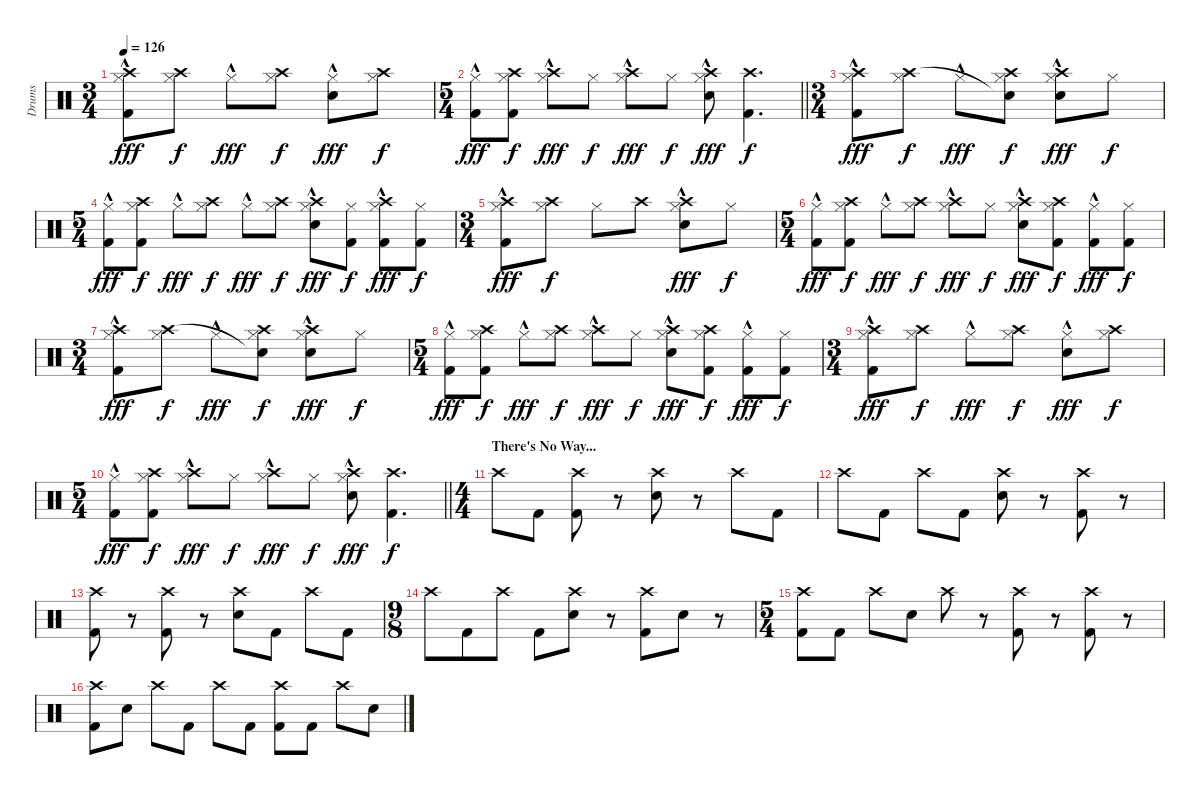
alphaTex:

\track ("Drums" "Drums") {instrument percussion}
\staff {score}
\articulation defaults
\ts (3 4)
\tempo 126
\clef neutral
\ks c
("Hi-Hat (closed)"{hac} "Crash high (hit)" "Kick (hit) 2").8{dy fff} ("Hi-Hat (closed)" "Crash high (hit)").8{dy f} "Hi-Hat (closed)"{hac}.8{dy fff} ("Hi-Hat (closed)" "Crash high (hit)").8{dy f} ("Hi-Hat (closed)"{hac} "Snare (hit) 2"{hac}).8{dy fff} ("Hi-Hat (closed)" "Crash high (hit)").8{dy f} |
\ts (5 4)
\barLineRight lightlight
("Hi-Hat (closed)"{hac} "Kick (hit) 2").8{dy fff} ("Hi-Hat (closed)" "Crash high (hit)" "Kick (hit) 2").8{dy f} ("Hi-Hat (closed)"{hac} "Crash high (hit)").8{dy fff} "Hi-Hat (closed)".8{dy f} ("Hi-Hat (closed)"{hac} "Crash high (hit)").8{dy fff} "Hi-Hat (closed)".8{dy f} ("Hi-Hat (closed)"{hac} "Crash high (hit)" "Snare (hit) 2"{hac}).8{dy fff} ("Crash high (hit)" "Kick (hit) 2").4{d dy f} |
\ts (3 4)
("Hi-Hat (closed)"{hac} "Crash high (hit)" "Kick (hit) 2").8{dy fff} ("Hi-Hat (closed)" "Crash high (hit)").8{dy f} "Hi-Hat (closed)"{hac}.8{dy fff} ("Hi-Hat (closed)" "Snare (hit)"{t} "Crash high (hit)").8{dy f} ("Hi-Hat (closed)"{hac} "Crash high (hit)" "Snare (hit) 2"{hac}).8{dy fff} "Hi-Hat (closed)".8{dy f} |
\ts (5 4)
("Hi-Hat (closed)"{hac} "Kick (hit) 2").8{dy fff} ("Hi-Hat (closed)" "Crash high (hit)" "Kick (hit) 2").8{dy f} "Hi-Hat (closed)"{hac}.8{dy fff} ("Hi-Hat (closed)" "Crash high (hit)").8{dy f} "Hi-Hat (closed)"{hac}.8{dy fff} ("Hi-Hat (closed)" "Crash high (hit)").8{dy f} ("Hi-Hat (closed)"{hac} "Crash high (hit)" "Snare (hit) 2"{hac}).8{dy fff} ("Hi-Hat (closed)" "Kick (hit) 2").8{dy f} ("Hi-Hat (closed)"{hac} "Crash high (hit)" "Kick (hit) 2").8{dy fff} ("Hi-Hat (closed)" "Kick (hit) 2").8{dy f} |
\ts (3 4)
("Hi-Hat (closed)"{hac} "Crash high (hit)" "Kick (hit) 2").8{dy fff} ("Hi-Hat (closed)" "Crash high (hit)").8{dy f} "Hi-Hat (closed)".8 "Crash high (hit)".8 ("Hi-Hat (closed)"{hac} "Crash high (hit)" "Snare (hit) 2"{hac}).8{dy fff} "Hi-Hat (closed)".8{dy f} |
\ts (5 4)
("Hi-Hat (closed)"{hac} "Kick (hit) 2").8{dy fff} ("Hi-Hat (closed)" "Crash high (hit)" "Kick (hit) 2").8{dy f} "Hi-Hat (closed)"{hac}.8{dy fff} ("Hi-Hat (closed)" "Crash high (hit)").8{dy f} ("Hi-Hat (closed)"{hac} "Crash high (hit)").8{dy fff} "Hi-Hat (closed)".8{dy f} ("Hi-Hat (closed)"{hac} "Crash high (hit)" "Snare (hit) 2"{hac}).8{dy fff} ("Hi-Hat (closed)" "Crash high (hit)" "Kick (hit) 2").8{dy f} ("Hi-Hat (closed)"{hac} "Kick (hit) 2").8{dy fff} ("Hi-Hat (closed)" "Kick (hit) 2").8{dy f} |
\ts (3 4)
("Hi-Hat (closed)"{hac} "Crash high (hit)" "Kick (hit) 2").8{dy fff} ("Hi-Hat (closed)" "Crash high (hit)").8{dy f} "Hi-Hat (closed)"{hac}.8{dy fff} ("Hi-Hat (closed)" "Snare (hit)"{t} "Crash high (hit)").8{dy f} ("Hi-Hat (closed)"{hac} "Crash high (hit)" "Snare (hit) 2"{hac}).8{dy fff} "Hi-Hat (closed)".8{dy f} |
\ts (5 4)
("Hi-Hat (closed)"{hac} "Kick (hit) 2").8{dy fff} ("Hi-Hat (closed)" "Crash high (hit)" "Kick (hit) 2").8{dy f} "Hi-Hat (closed)"{hac}.8{dy fff} ("Hi-Hat (closed)" "Crash high (hit)").8{dy f} ("Hi-Hat (closed)"{hac} "Crash high (hit)").8{dy fff} "Hi-Hat (closed)".8{dy f} ("Hi-Hat (closed)"{hac} "Crash high (hit)" "Snare (hit) 2"{hac}).8{dy fff} ("Hi-Hat (closed)" "Crash high (hit)" "Kick (hit) 2").8{dy f} ("Hi-Hat (closed)"{hac} "Kick (hit) 2").8{dy fff} ("Hi-Hat (closed)" "Kick (hit) 2").8{dy f} |
\ts (3 4)
("Hi-Hat (closed)"{hac} "Crash high (hit)" "Kick (hit) 2").8{dy fff} ("Hi-Hat (closed)" "Crash high (hit)").8{dy f} "Hi-Hat (closed)"{hac}.8{dy fff} ("Hi-Hat (closed)" "Crash high (hit)").8{dy f} ("Hi-Hat (closed)"{hac} "Snare (hit) 2"{hac}).8{dy fff} ("Hi-Hat (closed)" "Crash high (hit)").8{dy f} |
\ts (5 4)
\barLineRight lightlight
("Hi-Hat (closed)"{hac} "Kick (hit) 2").8{dy fff} ("Hi-Hat (closed)" "Crash high (hit)" "Kick (hit) 2").8{dy f} ("Hi-Hat (closed)"{hac} "Crash high (hit)").8{dy fff} "Hi-Hat (closed)".8{dy f} ("Hi-Hat (closed)"{hac} "Crash high (hit)").8{dy fff} "Hi-Hat (closed)".8{dy f} ("Hi-Hat (closed)"{hac} "Crash high (hit)" "Snare (hit) 2"{hac}).8{dy fff} ("Crash high (hit)" "Kick (hit) 2").4{d dy f} |
\ts (4 4)
\section ("" "There's No Way...")
"Crash high (hit)".8 "Kick (hit) 2".8 ("Crash high (hit)" "Kick (hit) 2").8 r.8 ("Crash high (hit)" "Snare (hit) 2").8 r.8 "Crash high (hit)".8 "Kick (hit) 2".8 |
"Crash high (hit)".8 "Kick (hit) 2".8 "Crash high (hit)".8 "Kick (hit) 2".8 ("Crash high (hit)" "Snare (hit) 2").8 r.8 ("Crash high (hit)" "Kick (hit) 2").8 r.8 |
("Crash high (hit)" "Kick (hit) 2").8 r.8 ("Crash high (hit)" "Kick (hit) 2").8 r.8 ("Crash high (hit)" "Snare (hit) 2").8 "Kick (hit) 2".8 "Crash high (hit)".8 "Kick (hit) 2".8 |
\ts (9 8)
"Crash high (hit)".8 "Kick (hit) 2".8 "Crash high (hit)".8 "Kick (hit) 2".8 ("Crash high (hit)" "Snare (hit) 2").8 r.8 ("Crash high (hit)" "Kick (hit) 2").8 "Snare (hit) 2".8 r.8 |
\ts (5 4)
("Crash high (hit)" "Kick (hit) 2").8 "Kick (hit) 2".8 "Crash high (hit)".8 "Snare (hit) 2".8 "Crash high (hit)".8 r.8 ("Crash high (hit)" "Kick (hit) 2").8 r.8 ("Crash high (hit)" "Kick (hit) 2").8 r.8 |
("Crash high (hit)" "Kick (hit) 2").8 "Snare (hit) 2".8 "Crash high (hit)".8 "Kick (hit) 2".8 "Crash high (hit)".8 "Kick (hit) 2".8 ("Crash high (hit)" "Kick (hit) 2").8 "Kick (hit) 2".8 "Crash high (hit)".8 "Snare (hit) 2".8
